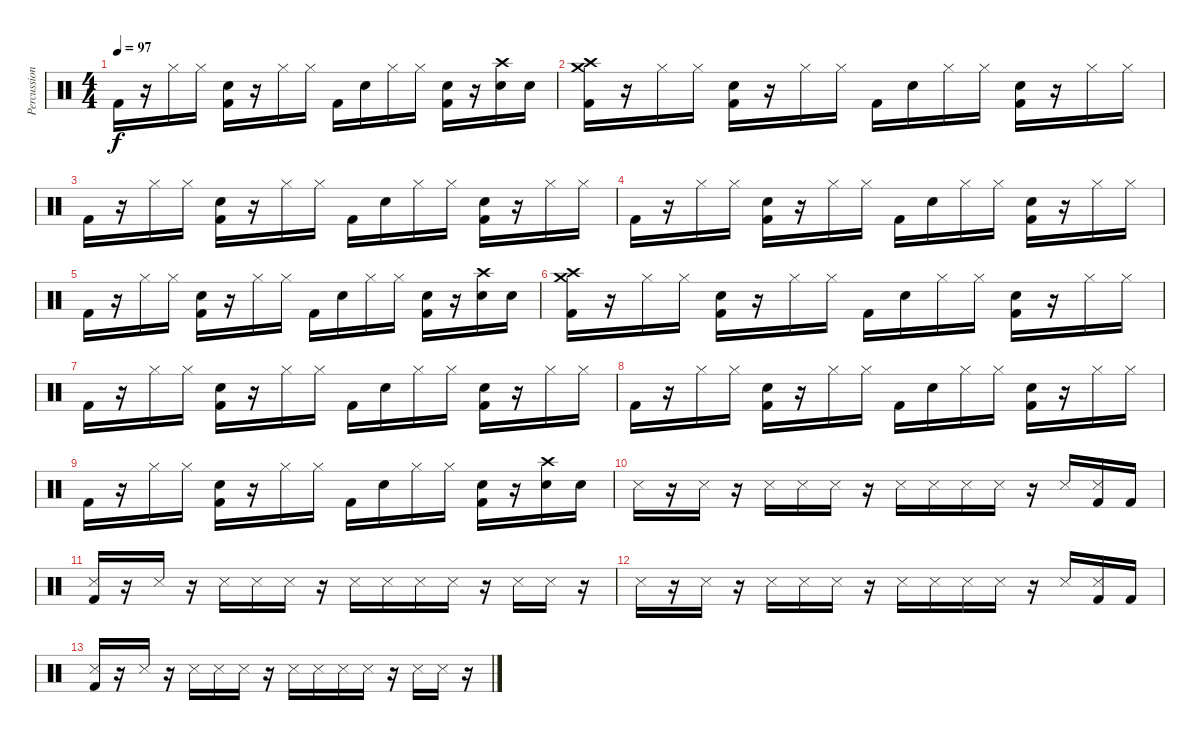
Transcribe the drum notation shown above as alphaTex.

\track ("Percussions" "Percussion") {instrument percussion}
\staff {score}
\articulation defaults
\ts (4 4)
\tempo 97
\clef neutral
\ks c "Kick (hit) 2".16{dy f}
r.16 "Hi-Hat (closed)".16 "Hi-Hat (closed)".16 ("Snare (hit) 2" "Kick (hit) 2").16 r.16 "Hi-Hat (closed)".16 "Hi-Hat (closed)".16 "Kick (hit) 2".16 "Snare (hit) 2".16 "Hi-Hat (closed)".16 "Hi-Hat (closed)".16 ("Snare (hit) 2" "Kick (hit) 2").16 r.16 ("Crash high (hit)" "Snare (hit) 2").16 "Snare (hit) 2".16 |
("Crash medium (hit)" "Crash high (hit)" "Kick (hit) 2").16 r.16 "Hi-Hat (closed)".16 "Hi-Hat (closed)".16 ("Snare (hit) 2" "Kick (hit) 2").16 r.16 "Hi-Hat (closed)".16 "Hi-Hat (closed)".16 "Kick (hit) 2".16 "Snare (hit) 2".16 "Hi-Hat (closed)".16 "Hi-Hat (closed)".16 ("Snare (hit) 2" "Kick (hit) 2").16 r.16 "Hi-Hat (closed)".16 "Hi-Hat (closed)".16 |
"Kick (hit) 2".16 r.16 "Hi-Hat (closed)".16 "Hi-Hat (closed)".16 ("Snare (hit) 2" "Kick (hit) 2").16 r.16 "Hi-Hat (closed)".16 "Hi-Hat (closed)".16 "Kick (hit) 2".16 "Snare (hit) 2".16 "Hi-Hat (closed)".16 "Hi-Hat (closed)".16 ("Snare (hit) 2" "Kick (hit) 2").16 r.16 "Hi-Hat (closed)".16 "Hi-Hat (closed)".16 |
"Kick (hit) 2".16 r.16 "Hi-Hat (closed)".16 "Hi-Hat (closed)".16 ("Snare (hit) 2" "Kick (hit) 2").16 r.16 "Hi-Hat (closed)".16 "Hi-Hat (closed)".16 "Kick (hit) 2".16 "Snare (hit) 2".16 "Hi-Hat (closed)".16 "Hi-Hat (closed)".16 ("Snare (hit) 2" "Kick (hit) 2").16 r.16 "Hi-Hat (closed)".16 "Hi-Hat (closed)".16 |
"Kick (hit) 2".16 r.16 "Hi-Hat (closed)".16 "Hi-Hat (closed)".16 ("Snare (hit) 2" "Kick (hit) 2").16 r.16 "Hi-Hat (closed)".16 "Hi-Hat (closed)".16 "Kick (hit) 2".16 "Snare (hit) 2".16 "Hi-Hat (closed)".16 "Hi-Hat (closed)".16 ("Snare (hit) 2" "Kick (hit) 2").16 r.16 ("Crash high (hit)" "Snare (hit) 2").16 "Snare (hit) 2".16 |
("Crash medium (hit)" "Crash high (hit)" "Kick (hit) 2").16 r.16 "Hi-Hat (closed)".16 "Hi-Hat (closed)".16 ("Snare (hit) 2" "Kick (hit) 2").16 r.16 "Hi-Hat (closed)".16 "Hi-Hat (closed)".16 "Kick (hit) 2".16 "Snare (hit) 2".16 "Hi-Hat (closed)".16 "Hi-Hat (closed)".16 ("Snare (hit) 2" "Kick (hit) 2").16 r.16 "Hi-Hat (closed)".16 "Hi-Hat (closed)".16 |
"Kick (hit) 2".16 r.16 "Hi-Hat (closed)".16 "Hi-Hat (closed)".16 ("Snare (hit) 2" "Kick (hit) 2").16 r.16 "Hi-Hat (closed)".16 "Hi-Hat (closed)".16 "Kick (hit) 2".16 "Snare (hit) 2".16 "Hi-Hat (closed)".16 "Hi-Hat (closed)".16 ("Snare (hit) 2" "Kick (hit) 2").16 r.16 "Hi-Hat (closed)".16 "Hi-Hat (closed)".16 |
"Kick (hit) 2".16 r.16 "Hi-Hat (closed)".16 "Hi-Hat (closed)".16 ("Snare (hit) 2" "Kick (hit) 2").16 r.16 "Hi-Hat (closed)".16 "Hi-Hat (closed)".16 "Kick (hit) 2".16 "Snare (hit) 2".16 "Hi-Hat (closed)".16 "Hi-Hat (closed)".16 ("Snare (hit) 2" "Kick (hit) 2").16 r.16 "Hi-Hat (closed)".16 "Hi-Hat (closed)".16 |
"Kick (hit) 2".16 r.16 "Hi-Hat (closed)".16 "Hi-Hat (closed)".16 ("Snare (hit) 2" "Kick (hit) 2").16 r.16 "Hi-Hat (closed)".16 "Hi-Hat (closed)".16 "Kick (hit) 2".16 "Snare (hit) 2".16 "Hi-Hat (closed)".16 "Hi-Hat (closed)".16 ("Snare (hit) 2" "Kick (hit) 2").16 r.16 ("Crash high (hit)" "Snare (hit) 2").16 "Snare (hit) 2".16 |
"Snare (side stick) 3".16 r.16 "Snare (side stick) 3".16 r.16 "Snare (side stick) 3".16 "Snare (side stick) 3".16 "Snare (side stick) 3".16 r.16 "Snare (side stick) 3".16 "Snare (side stick) 3".16 "Snare (side stick) 3".16 "Snare (side stick) 3".16 r.16 "Snare (side stick) 3".16 ("Snare (side stick) 3" "Kick (hit) 2").16 "Kick (hit) 2".16 |
("Snare (side stick) 3" "Kick (hit) 2").16 r.16 "Snare (side stick) 3".16 r.16 "Snare (side stick) 3".16 "Snare (side stick) 3".16 "Snare (side stick) 3".16 r.16 "Snare (side stick) 3".16 "Snare (side stick) 3".16 "Snare (side stick) 3".16 "Snare (side stick) 3".16 r.16 "Snare (side stick) 3".16 "Snare (side stick) 3".16 r.16 |
"Snare (side stick) 3".16 r.16 "Snare (side stick) 3".16 r.16 "Snare (side stick) 3".16 "Snare (side stick) 3".16 "Snare (side stick) 3".16 r.16 "Snare (side stick) 3".16 "Snare (side stick) 3".16 "Snare (side stick) 3".16 "Snare (side stick) 3".16 r.16 "Snare (side stick) 3".16 ("Snare (side stick) 3" "Kick (hit) 2").16 "Kick (hit) 2".16 |
("Snare (side stick) 3" "Kick (hit) 2").16 r.16 "Snare (side stick) 3".16 r.16 "Snare (side stick) 3".16 "Snare (side stick) 3".16 "Snare (side stick) 3".16 r.16 "Snare (side stick) 3".16 "Snare (side stick) 3".16 "Snare (side stick) 3".16 "Snare (side stick) 3".16 r.16 "Snare (side stick) 3".16 "Snare (side stick) 3".16 r.16
